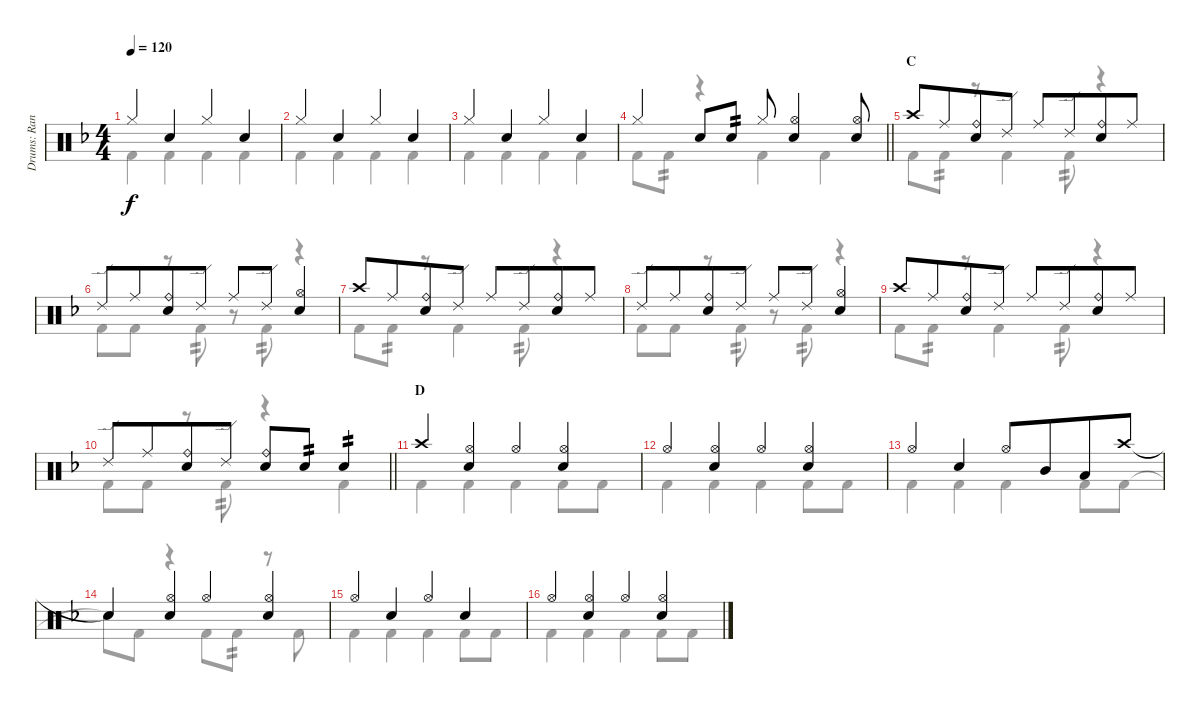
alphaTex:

\track ("Drums: Randy" "Drums: Ran") {instrument percussion}
\staff {score}
\articulation defaults
\voice
\ts (4 4)
\tempo 120
\clef neutral
\ks f "Hi-Hat (closed)".4{dy f} "Snare (hit) 2".4 "Hi-Hat (closed)".4 "Snare (hit) 2".4
|
"Hi-Hat (closed)".4 "Snare (hit) 2".4 "Hi-Hat (closed)".4 "Snare (hit) 2".4 |
"Hi-Hat (closed)".4 "Snare (hit) 2".4 "Hi-Hat (closed)".4 "Snare (hit) 2".4 |
\barLineRight lightlight "Hi-Hat (closed)".4 "Snare (hit) 2".8 "Snare (hit) 2".8{tp 2} "Hi-Hat (closed)".8
("Hi-Hat (open)" "Snare (hit) 2").4 ("Hi-Hat (open)" "Snare (hit) 2").8 |
\section ("" "C")
"Crash high (hit)".8 "Ride (middle)".8{beam merge} ("Ride (bell)" "Snare (hit) 2").8 "Ride (edge) 2".8 "Ride (middle)".8 "Ride (edge) 2".8{beam merge} ("Ride (bell)" "Snare (hit) 2").8 "Ride (middle)".8 |
"Ride (edge) 2".8 "Ride (middle)".8{beam merge} ("Ride (bell)" "Snare (hit) 2").8 "Ride (edge) 2".8 "Ride (middle)".8 "Ride (edge) 2".8{beam merge} ("Hi-Hat (open)" "Snare (hit) 2").4 |
"Crash high (hit)".8 "Ride (middle)".8{beam merge} ("Ride (bell)" "Snare (hit) 2").8 "Ride (edge) 2".8 "Ride (middle)".8 "Ride (edge) 2".8{beam merge} ("Ride (bell)" "Snare (hit) 2").8 "Ride (middle)".8 |
"Ride (edge) 2".8 "Ride (middle)".8{beam merge} ("Ride (bell)" "Snare (hit) 2").8 "Ride (edge) 2".8 "Ride (middle)".8 "Ride (edge) 2".8{beam merge} ("Hi-Hat (open)" "Snare (hit) 2").4 |
"Crash high (hit)".8 "Ride (middle)".8{beam merge} ("Ride (bell)" "Snare (hit) 2").8 "Ride (edge) 2".8 "Ride (middle)".8 "Ride (edge) 2".8{beam merge} ("Ride (bell)" "Snare (hit) 2").8 "Ride (middle)".8 |
\barLineRight lightlight "Ride (edge) 2".8 "Ride (middle)".8{beam merge}
("Ride (bell)" "Snare (hit) 2").8 "Ride (edge) 2".8 ("Ride (bell)" "Snare (hit) 2").8 "Snare (hit) 2".8{tp 2 beam merge} "Snare (hit) 2".4{tp 2} |
\section ("" "D")
"Crash high (hit)".4 ("Hi-Hat (open)" "Snare (hit) 2").4 "Hi-Hat (open)".4 ("Hi-Hat (open)" "Snare (hit) 2").4 |
"Hi-Hat (open)".4 ("Hi-Hat (open)" "Snare (hit) 2").4 "Hi-Hat (open)".4 ("Hi-Hat (open)" "Snare (hit) 2").4 |
"Hi-Hat (open)".4 "Snare (hit) 2".4 "Hi-Hat (open)".8 "Mid Tom (hit)".8{beam merge} "Low Tom (hit)".8 "Crash high (hit)".8 |
"Snare (hit)"{t}.4 ("Hi-Hat (open)" "Snare (hit) 2").4 "Hi-Hat (open)".4 ("Hi-Hat (open)" "Snare (hit) 2").4 |
"Hi-Hat (open)".4 "Snare (hit) 2".4 "Hi-Hat (open)".4 "Snare (hit) 2".4 |
"Hi-Hat (open)".4 ("Hi-Hat (open)" "Snare (hit) 2").4 "Hi-Hat (open)".4 ("Hi-Hat (open)" "Snare (hit) 2").4
\voice
\clef neutral
\ottava regular
\simile none
\ks f "Kick (hit) 2".4{dy f} "Kick (hit) 2".4 "Kick (hit) 2".4 "Kick (hit) 2".4
|
"Kick (hit) 2".4 "Kick (hit) 2".4 "Kick (hit) 2".4 "Kick (hit) 2".4 |
"Kick (hit) 2".4 "Kick (hit) 2".4 "Kick (hit) 2".4 "Kick (hit) 2".4 |
\barLineRight lightlight "Kick (hit) 2".8 "Kick (hit) 2".8{tp 2}
r.4 "Kick (hit) 2".4 "Kick (hit) 2".4 |
"Kick (hit) 2".8 "Kick (hit) 2".8{tp 2} r.8 "Kick (hit) 2".4 "Kick (hit) 2".8{tp 2} r.4 |
"Kick (hit) 2".8 "Kick (hit) 2".8 r.8 "Kick (hit) 2".8{tp 2} r.8 "Kick (hit) 2".8{tp 2} r.4 |
"Kick (hit) 2".8 "Kick (hit) 2".8{tp 2} r.8 "Kick (hit) 2".4 "Kick (hit) 2".8{tp 2} r.4 |
"Kick (hit) 2".8 "Kick (hit) 2".8 r.8 "Kick (hit) 2".8{tp 2} r.8 "Kick (hit) 2".8{tp 2} r.4 |
"Kick (hit) 2".8 "Kick (hit) 2".8{tp 2} r.8 "Kick (hit) 2".4 "Kick (hit) 2".8{tp 2} r.4 |
\barLineRight lightlight "Kick (hit) 2".8 "Kick (hit) 2".8
r.8 "Kick (hit) 2".8{tp 2} r.4 "Kick (hit) 2".4 |
"Kick (hit) 2".4 "Kick (hit) 2".4 "Kick (hit) 2".4 "Kick (hit) 2".8 "Kick (hit) 2".8 |
"Kick (hit) 2".4 "Kick (hit) 2".4 "Kick (hit) 2".4 "Kick (hit) 2".8 "Kick (hit) 2".8 |
"Kick (hit) 2".4 "Kick (hit) 2".4 "Kick (hit) 2".4 "Kick (hit) 2".8 "Kick (hit) 2".8 |
"Snare (hit)"{t}.8 "Kick (hit) 2".8 r.4 "Kick (hit) 2".8 "Kick (hit) 2".8{tp 2} r.8 "Kick (hit) 2".8 |
"Kick (hit) 2".4 "Kick (hit) 2".4 "Kick (hit) 2".4 "Kick (hit) 2".8 "Kick (hit) 2".8 |
"Kick (hit) 2".4 "Kick (hit) 2".4 "Kick (hit) 2".4 "Kick (hit) 2".8 "Kick (hit) 2".8
